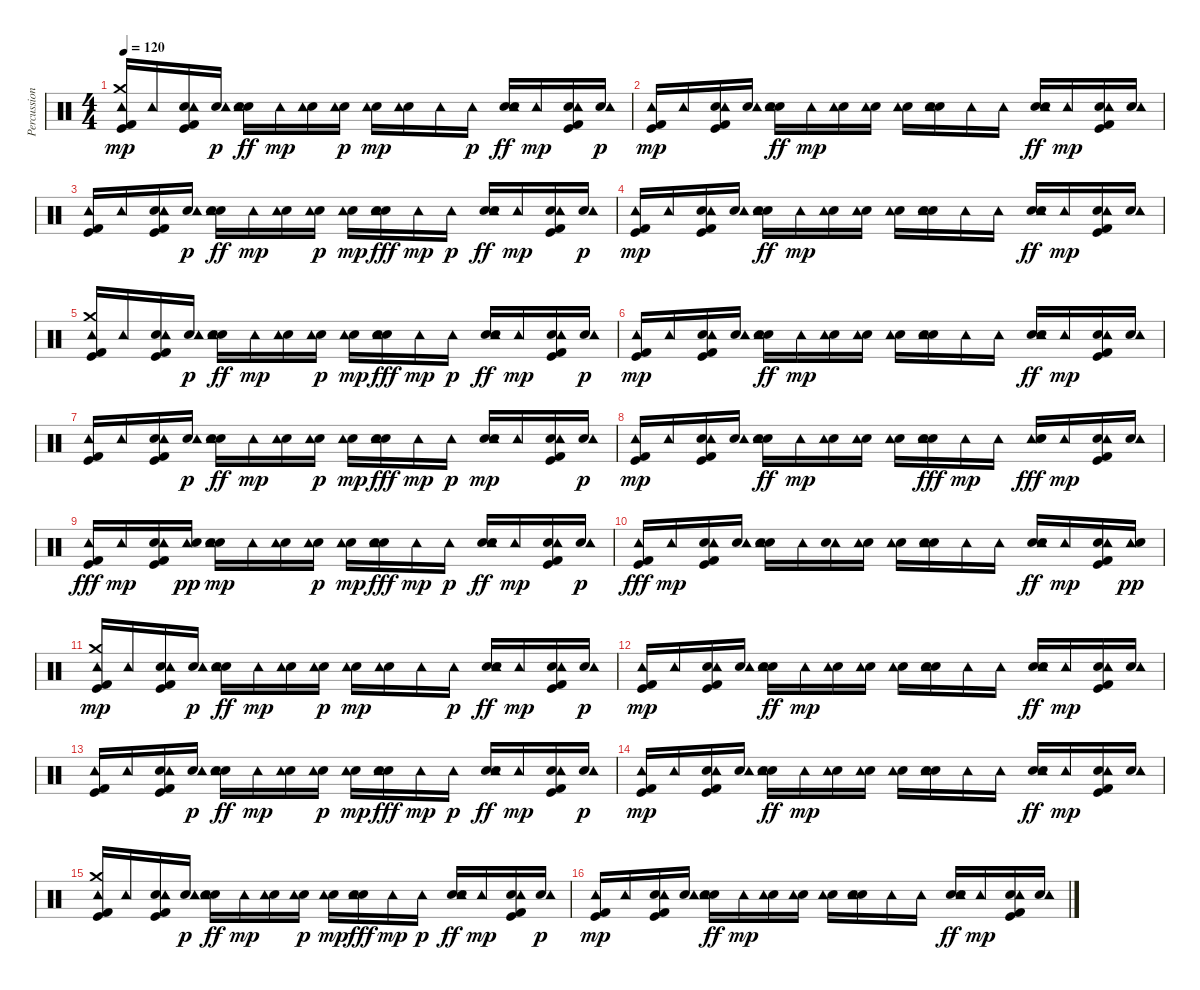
\track ("Percussions" "Percussion") {instrument percussion}
\staff {score}
\articulation defaults
\ts (4 4)
\tempo 120
\clef neutral
\ks c
("Kick (hit) 2" "Kick (hit)" "Crash medium (hit)" "Tambourine (hit)").16{dy mp} "Tambourine (hit)".16 ("Electric Snare (hit)" "Kick (hit) 2" "Kick (hit)" "Tambourine (hit)").16 ("Electric Snare (hit)" "Tambourine (hit)").16{dy p} ("Snare (hit) 2" "Tambourine (hit)" "Electric Snare (hit)").16{dy ff} "Tambourine (hit)".16{dy mp} ("Electric Snare (hit)" "Tambourine (hit)").16 ("Electric Snare (hit)" "Tambourine (hit)").16{dy p} ("Electric Snare (hit)" "Tambourine (hit)").16{dy mp} ("Electric Snare (hit)" "Tambourine (hit)").16 "Tambourine (hit)".16 "Tambourine (hit)".16{dy p} ("Snare (hit) 2" "Tambourine (hit)" "Electric Snare (hit)").16{dy ff} "Tambourine (hit)".16{dy mp} ("Electric Snare (hit)" "Kick (hit) 2" "Kick (hit)" "Tambourine (hit)").16 ("Electric Snare (hit)" "Tambourine (hit)").16{dy p} |
("Kick (hit) 2" "Kick (hit)" "Tambourine (hit)").16{dy mp} "Tambourine (hit)".16 ("Electric Snare (hit)" "Kick (hit) 2" "Kick (hit)" "Tambourine (hit)").16 ("Electric Snare (hit)" "Tambourine (hit)").16 ("Snare (hit) 2" "Tambourine (hit)" "Electric Snare (hit)").16{dy ff} "Tambourine (hit)".16{dy mp} ("Electric Snare (hit)" "Tambourine (hit)").16 ("Electric Snare (hit)" "Tambourine (hit)").16 ("Electric Snare (hit)" "Tambourine (hit)").16 ("Electric Snare (hit)" "Snare (hit) 2" "Tambourine (hit)").16 "Tambourine (hit)".16 "Tambourine (hit)".16 ("Snare (hit) 2" "Tambourine (hit)" "Electric Snare (hit)").16{dy ff} "Tambourine (hit)".16{dy mp} ("Electric Snare (hit)" "Kick (hit) 2" "Kick (hit)" "Tambourine (hit)").16 ("Electric Snare (hit)" "Tambourine (hit)").16 |
("Kick (hit) 2" "Kick (hit)" "Tambourine (hit)").16 "Tambourine (hit)".16 ("Electric Snare (hit)" "Kick (hit) 2" "Kick (hit)" "Tambourine (hit)").16 ("Electric Snare (hit)" "Tambourine (hit)").16{dy p} ("Snare (hit) 2" "Tambourine (hit)" "Electric Snare (hit)").16{dy ff} "Tambourine (hit)".16{dy mp} ("Electric Snare (hit)" "Tambourine (hit)").16 ("Electric Snare (hit)" "Tambourine (hit)").16{dy p} ("Electric Snare (hit)" "Tambourine (hit)").16{dy mp} ("Electric Snare (hit)" "Tambourine (hit)" "Snare (hit) 2").16{dy fff} "Tambourine (hit)".16{dy mp} "Tambourine (hit)".16{dy p} ("Snare (hit) 2" "Tambourine (hit)" "Electric Snare (hit)").16{dy ff} "Tambourine (hit)".16{dy mp} ("Electric Snare (hit)" "Kick (hit) 2" "Kick (hit)" "Tambourine (hit)").16 ("Electric Snare (hit)" "Tambourine (hit)").16{dy p} |
("Kick (hit) 2" "Kick (hit)" "Tambourine (hit)").16{dy mp} "Tambourine (hit)".16 ("Electric Snare (hit)" "Kick (hit) 2" "Kick (hit)" "Tambourine (hit)").16 ("Electric Snare (hit)" "Tambourine (hit)").16 ("Snare (hit) 2" "Tambourine (hit)" "Electric Snare (hit)").16{dy ff} "Tambourine (hit)".16{dy mp} ("Electric Snare (hit)" "Tambourine (hit)").16 ("Electric Snare (hit)" "Tambourine (hit)").16 ("Electric Snare (hit)" "Tambourine (hit)").16 ("Electric Snare (hit)" "Snare (hit) 2" "Tambourine (hit)").16 "Tambourine (hit)".16 "Tambourine (hit)".16 ("Snare (hit) 2" "Tambourine (hit)" "Electric Snare (hit)").16{dy ff} "Tambourine (hit)".16{dy mp} ("Electric Snare (hit)" "Kick (hit) 2" "Kick (hit)" "Tambourine (hit)").16 ("Electric Snare (hit)" "Tambourine (hit)").16 |
("Kick (hit) 2" "Kick (hit)" "Crash medium (hit)" "Tambourine (hit)").16 "Tambourine (hit)".16 ("Electric Snare (hit)" "Kick (hit) 2" "Kick (hit)" "Tambourine (hit)").16 ("Electric Snare (hit)" "Tambourine (hit)").16{dy p} ("Snare (hit) 2" "Tambourine (hit)" "Electric Snare (hit)").16{dy ff} "Tambourine (hit)".16{dy mp} ("Electric Snare (hit)" "Tambourine (hit)").16 ("Electric Snare (hit)" "Tambourine (hit)").16{dy p} ("Electric Snare (hit)" "Tambourine (hit)").16{dy mp} ("Electric Snare (hit)" "Tambourine (hit)" "Snare (hit) 2").16{dy fff} "Tambourine (hit)".16{dy mp} "Tambourine (hit)".16{dy p} ("Snare (hit) 2" "Tambourine (hit)" "Electric Snare (hit)").16{dy ff} "Tambourine (hit)".16{dy mp} ("Electric Snare (hit)" "Kick (hit) 2" "Kick (hit)" "Tambourine (hit)").16 ("Electric Snare (hit)" "Tambourine (hit)").16{dy p} |
("Kick (hit) 2" "Kick (hit)" "Tambourine (hit)").16{dy mp} "Tambourine (hit)".16 ("Electric Snare (hit)" "Kick (hit) 2" "Kick (hit)" "Tambourine (hit)").16 ("Electric Snare (hit)" "Tambourine (hit)").16 ("Snare (hit) 2" "Tambourine (hit)" "Electric Snare (hit)").16{dy ff} "Tambourine (hit)".16{dy mp} ("Electric Snare (hit)" "Tambourine (hit)").16 ("Electric Snare (hit)" "Tambourine (hit)").16 ("Electric Snare (hit)" "Tambourine (hit)").16 ("Electric Snare (hit)" "Snare (hit) 2" "Tambourine (hit)").16 "Tambourine (hit)".16 "Tambourine (hit)".16 ("Snare (hit) 2" "Tambourine (hit)" "Electric Snare (hit)").16{dy ff} "Tambourine (hit)".16{dy mp} ("Electric Snare (hit)" "Kick (hit) 2" "Kick (hit)" "Tambourine (hit)").16 ("Electric Snare (hit)" "Tambourine (hit)").16 |
("Kick (hit) 2" "Kick (hit)" "Tambourine (hit)").16 "Tambourine (hit)".16 ("Electric Snare (hit)" "Kick (hit) 2" "Kick (hit)" "Tambourine (hit)").16 ("Electric Snare (hit)" "Tambourine (hit)").16{dy p} ("Snare (hit) 2" "Tambourine (hit)" "Electric Snare (hit)").16{dy ff} "Tambourine (hit)".16{dy mp} ("Electric Snare (hit)" "Tambourine (hit)").16 ("Electric Snare (hit)" "Tambourine (hit)").16{dy p} ("Electric Snare (hit)" "Tambourine (hit)").16{dy mp} ("Electric Snare (hit)" "Tambourine (hit)" "Snare (hit) 2").16{dy fff} "Tambourine (hit)".16{dy mp} "Tambourine (hit)".16{dy p} ("Snare (hit) 2" "Electric Snare (hit)" "Tambourine (hit)").16{dy mp} "Tambourine (hit)".16 ("Electric Snare (hit)" "Kick (hit)" "Kick (hit) 2" "Tambourine (hit)").16 ("Electric Snare (hit)" "Tambourine (hit)").16{dy p} |
("Kick (hit) 2" "Kick (hit)" "Tambourine (hit)").16{dy mp} "Tambourine (hit)".16 ("Electric Snare (hit)" "Kick (hit) 2" "Kick (hit)" "Tambourine (hit)").16 ("Electric Snare (hit)" "Tambourine (hit)").16 ("Snare (hit) 2" "Tambourine (hit)" "Electric Snare (hit)").16{dy ff} "Tambourine (hit)".16{dy mp} ("Electric Snare (hit)" "Tambourine (hit)").16 ("Electric Snare (hit)" "Tambourine (hit)").16 ("Electric Snare (hit)" "Tambourine (hit)").16 ("Electric Snare (hit)" "Tambourine (hit)" "Snare (hit) 2").16{dy fff} "Tambourine (hit)".16{dy mp} "Tambourine (hit)".16 ("Tambourine (hit)" "Electric Snare (hit)" "Snare (hit) 2").16{dy fff} "Tambourine (hit)".16{dy mp} ("Kick (hit)" "Electric Snare (hit)" "Kick (hit) 2" "Tambourine (hit)").16 ("Electric Snare (hit)" "Tambourine (hit)").16 |
("Tambourine (hit)" "Kick (hit) 2" "Kick (hit)").16{dy fff} "Tambourine (hit)".16{dy mp} ("Kick (hit)" "Electric Snare (hit)" "Kick (hit) 2" "Tambourine (hit)").16 ("Tambourine (hit)" "Electric Snare (hit)").16{dy pp} ("Electric Snare (hit)" "Snare (hit) 2" "Tambourine (hit)").16{dy mp} "Tambourine (hit)".16 ("Electric Snare (hit)" "Tambourine (hit)").16 ("Electric Snare (hit)" "Tambourine (hit)").16{dy p} ("Electric Snare (hit)" "Tambourine (hit)").16{dy mp} ("Electric Snare (hit)" "Tambourine (hit)" "Snare (hit) 2").16{dy fff} "Tambourine (hit)".16{dy mp} "Tambourine (hit)".16{dy p} ("Snare (hit) 2" "Tambourine (hit)" "Electric Snare (hit)").16{dy ff} "Tambourine (hit)".16{dy mp} ("Electric Snare (hit)" "Kick (hit) 2" "Kick (hit)" "Tambourine (hit)").16 ("Electric Snare (hit)" "Tambourine (hit)").16{dy p} |
("Tambourine (hit)" "Kick (hit) 2" "Kick (hit)").16{dy fff} "Tambourine (hit)".16{dy mp} ("Kick (hit) 2" "Electric Snare (hit)" "Kick (hit)" "Tambourine (hit)").16 ("Electric Snare (hit)" "Tambourine (hit)").16 ("Electric Snare (hit)" "Snare (hit) 2" "Tambourine (hit)").16 "Tambourine (hit)".16 ("Tambourine (hit)" "Electric Snare (hit)").16 ("Electric Snare (hit)" "Tambourine (hit)").16 ("Electric Snare (hit)" "Tambourine (hit)").16 ("Snare (hit) 2" "Electric Snare (hit)" "Tambourine (hit)").16 "Tambourine (hit)".16 "Tambourine (hit)".16 ("Snare (hit) 2" "Tambourine (hit)" "Electric Snare (hit)").16{dy ff} "Tambourine (hit)".16{dy mp} ("Kick (hit)" "Electric Snare (hit)" "Kick (hit) 2" "Tambourine (hit)").16 ("Tambourine (hit)" "Electric Snare (hit)").16{dy pp} |
("Kick (hit) 2" "Kick (hit)" "Crash medium (hit)" "Tambourine (hit)").16{dy mp} "Tambourine (hit)".16 ("Electric Snare (hit)" "Kick (hit) 2" "Kick (hit)" "Tambourine (hit)").16 ("Electric Snare (hit)" "Tambourine (hit)").16{dy p} ("Snare (hit) 2" "Tambourine (hit)" "Electric Snare (hit)").16{dy ff} "Tambourine (hit)".16{dy mp} ("Electric Snare (hit)" "Tambourine (hit)").16 ("Electric Snare (hit)" "Tambourine (hit)").16{dy p} ("Electric Snare (hit)" "Tambourine (hit)").16{dy mp} ("Electric Snare (hit)" "Tambourine (hit)").16 "Tambourine (hit)".16 "Tambourine (hit)".16{dy p} ("Snare (hit) 2" "Tambourine (hit)" "Electric Snare (hit)").16{dy ff} "Tambourine (hit)".16{dy mp} ("Electric Snare (hit)" "Kick (hit) 2" "Kick (hit)" "Tambourine (hit)").16 ("Electric Snare (hit)" "Tambourine (hit)").16{dy p} |
("Kick (hit) 2" "Kick (hit)" "Tambourine (hit)").16{dy mp} "Tambourine (hit)".16 ("Electric Snare (hit)" "Kick (hit) 2" "Kick (hit)" "Tambourine (hit)").16 ("Electric Snare (hit)" "Tambourine (hit)").16 ("Snare (hit) 2" "Tambourine (hit)" "Electric Snare (hit)").16{dy ff} "Tambourine (hit)".16{dy mp} ("Electric Snare (hit)" "Tambourine (hit)").16 ("Electric Snare (hit)" "Tambourine (hit)").16 ("Electric Snare (hit)" "Tambourine (hit)").16 ("Electric Snare (hit)" "Snare (hit) 2" "Tambourine (hit)").16 "Tambourine (hit)".16 "Tambourine (hit)".16 ("Snare (hit) 2" "Tambourine (hit)" "Electric Snare (hit)").16{dy ff} "Tambourine (hit)".16{dy mp} ("Electric Snare (hit)" "Kick (hit) 2" "Kick (hit)" "Tambourine (hit)").16 ("Electric Snare (hit)" "Tambourine (hit)").16 |
("Kick (hit) 2" "Kick (hit)" "Tambourine (hit)").16 "Tambourine (hit)".16 ("Electric Snare (hit)" "Kick (hit) 2" "Kick (hit)" "Tambourine (hit)").16 ("Electric Snare (hit)" "Tambourine (hit)").16{dy p} ("Snare (hit) 2" "Tambourine (hit)" "Electric Snare (hit)").16{dy ff} "Tambourine (hit)".16{dy mp} ("Electric Snare (hit)" "Tambourine (hit)").16 ("Electric Snare (hit)" "Tambourine (hit)").16{dy p} ("Electric Snare (hit)" "Tambourine (hit)").16{dy mp} ("Electric Snare (hit)" "Tambourine (hit)" "Snare (hit) 2").16{dy fff} "Tambourine (hit)".16{dy mp} "Tambourine (hit)".16{dy p} ("Snare (hit) 2" "Tambourine (hit)" "Electric Snare (hit)").16{dy ff} "Tambourine (hit)".16{dy mp} ("Electric Snare (hit)" "Kick (hit) 2" "Kick (hit)" "Tambourine (hit)").16 ("Electric Snare (hit)" "Tambourine (hit)").16{dy p} |
("Kick (hit) 2" "Kick (hit)" "Tambourine (hit)").16{dy mp} "Tambourine (hit)".16 ("Electric Snare (hit)" "Kick (hit) 2" "Kick (hit)" "Tambourine (hit)").16 ("Electric Snare (hit)" "Tambourine (hit)").16 ("Snare (hit) 2" "Tambourine (hit)" "Electric Snare (hit)").16{dy ff} "Tambourine (hit)".16{dy mp} ("Electric Snare (hit)" "Tambourine (hit)").16 ("Electric Snare (hit)" "Tambourine (hit)").16 ("Electric Snare (hit)" "Tambourine (hit)").16 ("Electric Snare (hit)" "Snare (hit) 2" "Tambourine (hit)").16 "Tambourine (hit)".16 "Tambourine (hit)".16 ("Snare (hit) 2" "Tambourine (hit)" "Electric Snare (hit)").16{dy ff} "Tambourine (hit)".16{dy mp} ("Electric Snare (hit)" "Kick (hit) 2" "Kick (hit)" "Tambourine (hit)").16 ("Electric Snare (hit)" "Tambourine (hit)").16 |
("Kick (hit) 2" "Kick (hit)" "Crash medium (hit)" "Tambourine (hit)").16 "Tambourine (hit)".16 ("Electric Snare (hit)" "Kick (hit) 2" "Kick (hit)" "Tambourine (hit)").16 ("Electric Snare (hit)" "Tambourine (hit)").16{dy p} ("Snare (hit) 2" "Tambourine (hit)" "Electric Snare (hit)").16{dy ff} "Tambourine (hit)".16{dy mp} ("Electric Snare (hit)" "Tambourine (hit)").16 ("Electric Snare (hit)" "Tambourine (hit)").16{dy p} ("Electric Snare (hit)" "Tambourine (hit)").16{dy mp} ("Electric Snare (hit)" "Tambourine (hit)" "Snare (hit) 2").16{dy fff} "Tambourine (hit)".16{dy mp} "Tambourine (hit)".16{dy p} ("Snare (hit) 2" "Tambourine (hit)" "Electric Snare (hit)").16{dy ff} "Tambourine (hit)".16{dy mp} ("Electric Snare (hit)" "Kick (hit) 2" "Kick (hit)" "Tambourine (hit)").16 ("Electric Snare (hit)" "Tambourine (hit)").16{dy p} |
("Kick (hit) 2" "Kick (hit)" "Tambourine (hit)").16{dy mp} "Tambourine (hit)".16 ("Electric Snare (hit)" "Kick (hit) 2" "Kick (hit)" "Tambourine (hit)").16 ("Electric Snare (hit)" "Tambourine (hit)").16 ("Snare (hit) 2" "Tambourine (hit)" "Electric Snare (hit)").16{dy ff} "Tambourine (hit)".16{dy mp} ("Electric Snare (hit)" "Tambourine (hit)").16 ("Electric Snare (hit)" "Tambourine (hit)").16 ("Electric Snare (hit)" "Tambourine (hit)").16 ("Electric Snare (hit)" "Snare (hit) 2" "Tambourine (hit)").16 "Tambourine (hit)".16 "Tambourine (hit)".16 ("Snare (hit) 2" "Tambourine (hit)" "Electric Snare (hit)").16{dy ff} "Tambourine (hit)".16{dy mp} ("Electric Snare (hit)" "Kick (hit) 2" "Kick (hit)" "Tambourine (hit)").16 ("Electric Snare (hit)" "Tambourine (hit)").16
